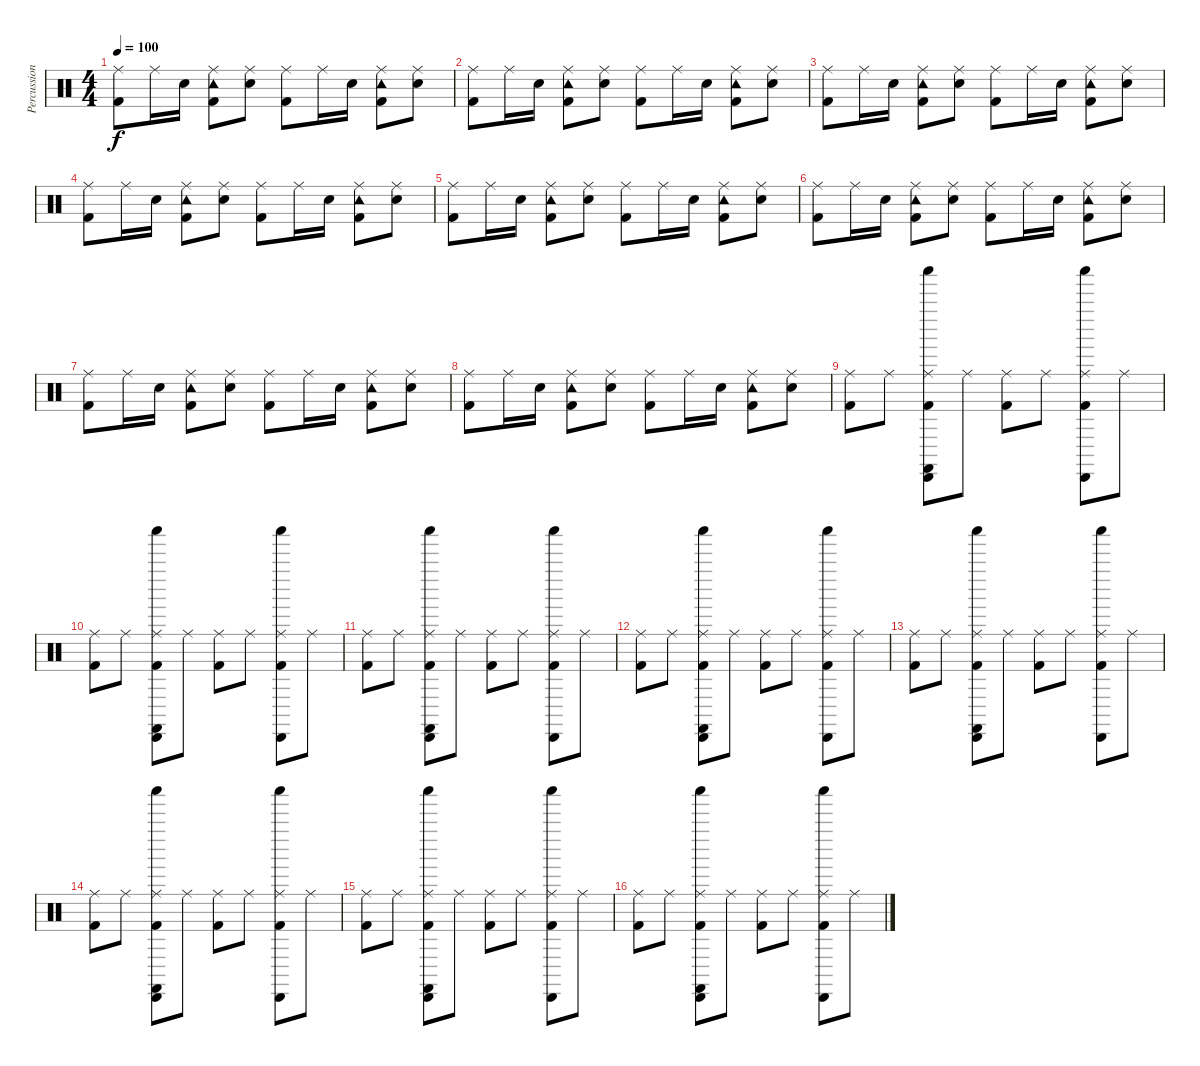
\track ("Percussion" "Percussion") {instrument percussion}
\staff {score}
\articulation defaults
\ts (4 4)
\tempo 100
\clef neutral
\ks c
("Kick (hit) 2" "Ride (middle)").8{dy f} "Ride (middle)".16 "Electric Snare (hit)".16 ("Kick (hit) 2" "Ride (middle)" "Tambourine (hit)").8 ("Ride (middle)" "Electric Snare (hit)").8 ("Kick (hit) 2" "Ride (middle)").8 "Ride (middle)".16 "Electric Snare (hit)".16 ("Kick (hit) 2" "Ride (middle)" "Tambourine (hit)").8 ("Ride (middle)" "Electric Snare (hit)").8 |
("Kick (hit) 2" "Ride (middle)").8 "Ride (middle)".16 "Electric Snare (hit)".16 ("Kick (hit) 2" "Ride (middle)" "Tambourine (hit)").8 ("Ride (middle)" "Electric Snare (hit)").8 ("Kick (hit) 2" "Ride (middle)").8 "Ride (middle)".16 "Electric Snare (hit)".16 ("Kick (hit) 2" "Ride (middle)" "Tambourine (hit)").8 ("Ride (middle)" "Electric Snare (hit)").8 |
("Kick (hit) 2" "Ride (middle)").8 "Ride (middle)".16 "Electric Snare (hit)".16 ("Kick (hit) 2" "Ride (middle)" "Tambourine (hit)").8 ("Ride (middle)" "Electric Snare (hit)").8 ("Kick (hit) 2" "Ride (middle)").8 "Ride (middle)".16 "Electric Snare (hit)".16 ("Kick (hit) 2" "Ride (middle)" "Tambourine (hit)").8 ("Ride (middle)" "Electric Snare (hit)").8 |
("Kick (hit) 2" "Ride (middle)").8 "Ride (middle)".16 "Electric Snare (hit)".16 ("Kick (hit) 2" "Ride (middle)" "Tambourine (hit)").8 ("Ride (middle)" "Electric Snare (hit)").8 ("Kick (hit) 2" "Ride (middle)").8 "Ride (middle)".16 "Electric Snare (hit)".16 ("Kick (hit) 2" "Ride (middle)" "Tambourine (hit)").8 ("Ride (middle)" "Electric Snare (hit)").8 |
("Kick (hit) 2" "Ride (middle)").8 "Ride (middle)".16 "Electric Snare (hit)".16 ("Kick (hit) 2" "Ride (middle)" "Tambourine (hit)").8 ("Ride (middle)" "Electric Snare (hit)").8 ("Kick (hit) 2" "Ride (middle)").8 "Ride (middle)".16 "Electric Snare (hit)".16 ("Kick (hit) 2" "Ride (middle)" "Tambourine (hit)").8 ("Ride (middle)" "Electric Snare (hit)").8 |
("Kick (hit) 2" "Ride (middle)").8 "Ride (middle)".16 "Electric Snare (hit)".16 ("Kick (hit) 2" "Ride (middle)" "Tambourine (hit)").8 ("Ride (middle)" "Electric Snare (hit)").8 ("Kick (hit) 2" "Ride (middle)").8 "Ride (middle)".16 "Electric Snare (hit)".16 ("Kick (hit) 2" "Ride (middle)" "Tambourine (hit)").8 ("Ride (middle)" "Electric Snare (hit)").8 |
("Kick (hit) 2" "Ride (middle)").8 "Ride (middle)".16 "Electric Snare (hit)".16 ("Kick (hit) 2" "Ride (middle)" "Tambourine (hit)").8 ("Ride (middle)" "Electric Snare (hit)").8 ("Kick (hit) 2" "Ride (middle)").8 "Ride (middle)".16 "Electric Snare (hit)".16 ("Kick (hit) 2" "Ride (middle)" "Tambourine (hit)").8 ("Ride (middle)" "Electric Snare (hit)").8 |
("Kick (hit) 2" "Ride (middle)").8 "Ride (middle)".16 "Electric Snare (hit)".16 ("Kick (hit) 2" "Ride (middle)" "Tambourine (hit)").8 ("Ride (middle)" "Electric Snare (hit)").8 ("Kick (hit) 2" "Ride (middle)").8 "Ride (middle)".16 "Electric Snare (hit)".16 ("Kick (hit) 2" "Ride (middle)" "Tambourine (hit)").8 ("Ride (middle)" "Electric Snare (hit)").8 |
("Kick (hit) 2" "Ride (middle)").8 "Ride (middle)".8 ("Cabasa (hit)" "Castanets (hit)" "Shaker (hit)" "Kick (hit) 2" "Ride (middle)").8 "Ride (middle)".8 ("Kick (hit) 2" "Ride (middle)").8 "Ride (middle)".8 ("Shaker (hit)" "Cabasa (hit)" "Kick (hit) 2" "Ride (middle)").8 "Ride (middle)".8 |
("Kick (hit) 2" "Ride (middle)").8 "Ride (middle)".8 ("Cabasa (hit)" "Castanets (hit)" "Shaker (hit)" "Kick (hit) 2" "Ride (middle)").8 "Ride (middle)".8 ("Kick (hit) 2" "Ride (middle)").8 "Ride (middle)".8 ("Shaker (hit)" "Cabasa (hit)" "Kick (hit) 2" "Ride (middle)").8 "Ride (middle)".8 |
("Kick (hit) 2" "Ride (middle)").8 "Ride (middle)".8 ("Cabasa (hit)" "Castanets (hit)" "Shaker (hit)" "Kick (hit) 2" "Ride (middle)").8 "Ride (middle)".8 ("Kick (hit) 2" "Ride (middle)").8 "Ride (middle)".8 ("Shaker (hit)" "Cabasa (hit)" "Kick (hit) 2" "Ride (middle)").8 "Ride (middle)".8 |
("Kick (hit) 2" "Ride (middle)").8 "Ride (middle)".8 ("Cabasa (hit)" "Castanets (hit)" "Shaker (hit)" "Kick (hit) 2" "Ride (middle)").8 "Ride (middle)".8 ("Kick (hit) 2" "Ride (middle)").8 "Ride (middle)".8 ("Shaker (hit)" "Cabasa (hit)" "Kick (hit) 2" "Ride (middle)").8 "Ride (middle)".8 |
("Kick (hit) 2" "Ride (middle)").8 "Ride (middle)".8 ("Cabasa (hit)" "Castanets (hit)" "Shaker (hit)" "Kick (hit) 2" "Ride (middle)").8 "Ride (middle)".8 ("Kick (hit) 2" "Ride (middle)").8 "Ride (middle)".8 ("Shaker (hit)" "Cabasa (hit)" "Kick (hit) 2" "Ride (middle)").8 "Ride (middle)".8 |
("Kick (hit) 2" "Ride (middle)").8 "Ride (middle)".8 ("Cabasa (hit)" "Castanets (hit)" "Shaker (hit)" "Kick (hit) 2" "Ride (middle)").8 "Ride (middle)".8 ("Kick (hit) 2" "Ride (middle)").8 "Ride (middle)".8 ("Shaker (hit)" "Cabasa (hit)" "Kick (hit) 2" "Ride (middle)").8 "Ride (middle)".8 |
("Kick (hit) 2" "Ride (middle)").8 "Ride (middle)".8 ("Cabasa (hit)" "Castanets (hit)" "Shaker (hit)" "Kick (hit) 2" "Ride (middle)").8 "Ride (middle)".8 ("Kick (hit) 2" "Ride (middle)").8 "Ride (middle)".8 ("Shaker (hit)" "Cabasa (hit)" "Kick (hit) 2" "Ride (middle)").8 "Ride (middle)".8 |
("Kick (hit) 2" "Ride (middle)").8 "Ride (middle)".8 ("Cabasa (hit)" "Castanets (hit)" "Shaker (hit)" "Kick (hit) 2" "Ride (middle)").8 "Ride (middle)".8 ("Kick (hit) 2" "Ride (middle)").8 "Ride (middle)".8 ("Shaker (hit)" "Cabasa (hit)" "Kick (hit) 2" "Ride (middle)").8 "Ride (middle)".8
